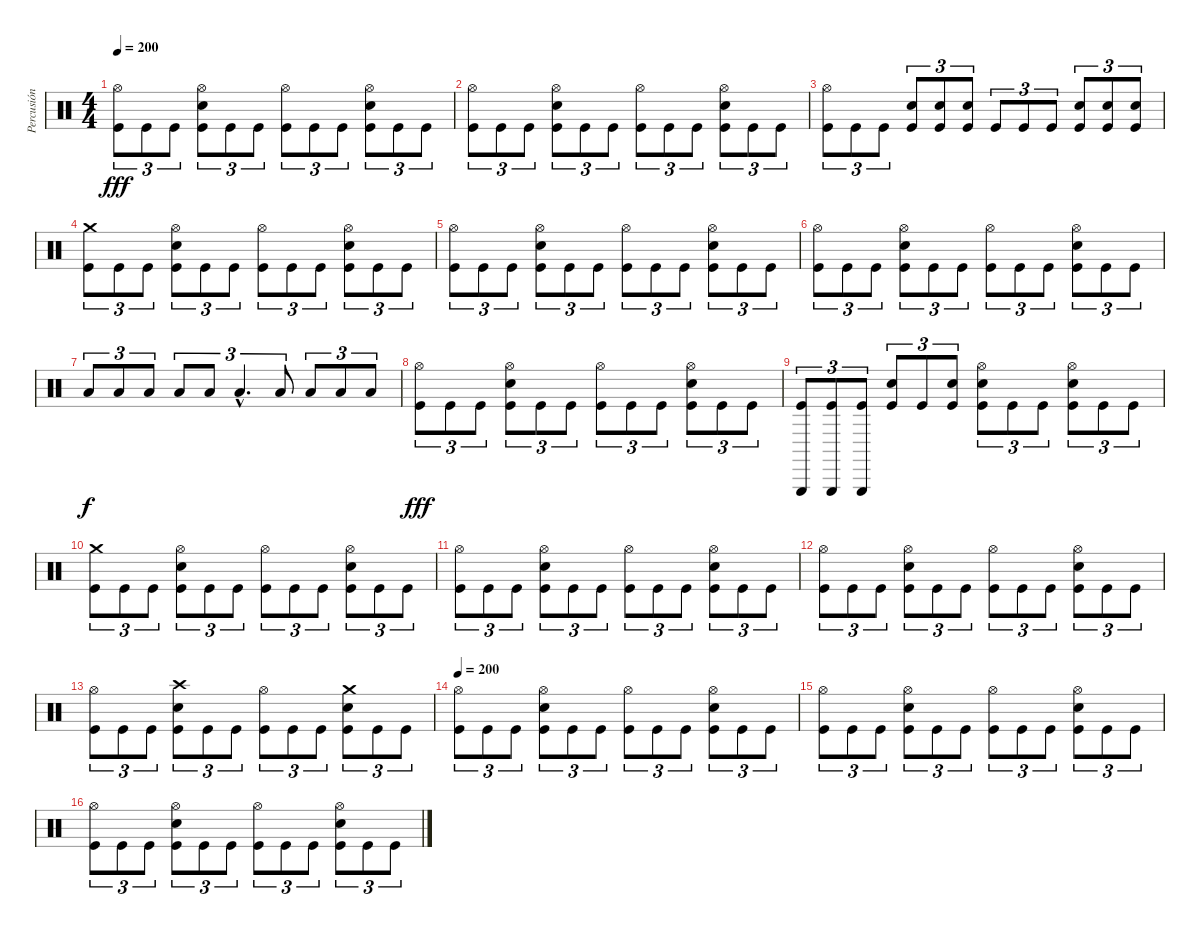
\track ("Percusión" "Percusión") {instrument percussion}
\staff {score}
\articulation defaults
\ts (4 4)
\tempo 200
\clef neutral
\ks c
("Hi-Hat (open)" "Kick (hit)").8{tu (3 2) dy fff} "Kick (hit)".8{tu (3 2)} "Kick (hit)".8{tu (3 2)} ("Hi-Hat (open)" "Electric Snare (hit)" "Kick (hit)").8{tu (3 2)} "Kick (hit)".8{tu (3 2)} "Kick (hit)".8{tu (3 2)} ("Hi-Hat (open)" "Kick (hit)").8{tu (3 2)} "Kick (hit)".8{tu (3 2)} "Kick (hit)".8{tu (3 2)} ("Hi-Hat (open)" "Electric Snare (hit)" "Kick (hit)").8{tu (3 2)} "Kick (hit)".8{tu (3 2)} "Kick (hit)".8{tu (3 2)} |
("Hi-Hat (open)" "Kick (hit)").8{tu (3 2)} "Kick (hit)".8{tu (3 2)} "Kick (hit)".8{tu (3 2)} ("Hi-Hat (open)" "Electric Snare (hit)" "Kick (hit)").8{tu (3 2)} "Kick (hit)".8{tu (3 2)} "Kick (hit)".8{tu (3 2)} ("Hi-Hat (open)" "Kick (hit)").8{tu (3 2)} "Kick (hit)".8{tu (3 2)} "Kick (hit)".8{tu (3 2)} ("Hi-Hat (open)" "Electric Snare (hit)" "Kick (hit)").8{tu (3 2)} "Kick (hit)".8{tu (3 2)} "Kick (hit)".8{tu (3 2)} |
("Hi-Hat (open)" "Kick (hit)").8{tu (3 2)} "Kick (hit)".8{tu (3 2)} "Kick (hit)".8{tu (3 2)} ("Electric Snare (hit)" "Kick (hit)").8{tu (3 2)} ("Electric Snare (hit)" "Kick (hit)").8{tu (3 2)} ("Electric Snare (hit)" "Kick (hit)").8{tu (3 2)} "Kick (hit)".8{tu (3 2)} "Kick (hit)".8{tu (3 2)} "Kick (hit)".8{tu (3 2)} ("Electric Snare (hit)" "Kick (hit)").8{tu (3 2)} ("Electric Snare (hit)" "Kick (hit)").8{tu (3 2)} ("Electric Snare (hit)" "Kick (hit)").8{tu (3 2)} |
("Crash medium (hit)" "Kick (hit)").8{tu (3 2)} "Kick (hit)".8{tu (3 2)} "Kick (hit)".8{tu (3 2)} ("Hi-Hat (open)" "Electric Snare (hit)" "Kick (hit)").8{tu (3 2)} "Kick (hit)".8{tu (3 2)} "Kick (hit)".8{tu (3 2)} ("Hi-Hat (open)" "Kick (hit)").8{tu (3 2)} "Kick (hit)".8{tu (3 2)} "Kick (hit)".8{tu (3 2)} ("Hi-Hat (open)" "Electric Snare (hit)" "Kick (hit)").8{tu (3 2)} "Kick (hit)".8{tu (3 2)} "Kick (hit)".8{tu (3 2)} |
("Hi-Hat (open)" "Kick (hit)").8{tu (3 2)} "Kick (hit)".8{tu (3 2)} "Kick (hit)".8{tu (3 2)} ("Hi-Hat (open)" "Electric Snare (hit)" "Kick (hit)").8{tu (3 2)} "Kick (hit)".8{tu (3 2)} "Kick (hit)".8{tu (3 2)} ("Hi-Hat (open)" "Kick (hit)").8{tu (3 2)} "Kick (hit)".8{tu (3 2)} "Kick (hit)".8{tu (3 2)} ("Hi-Hat (open)" "Electric Snare (hit)" "Kick (hit)").8{tu (3 2)} "Kick (hit)".8{tu (3 2)} "Kick (hit)".8{tu (3 2)} |
("Hi-Hat (open)" "Kick (hit)").8{tu (3 2)} "Kick (hit)".8{tu (3 2)} "Kick (hit)".8{tu (3 2)} ("Hi-Hat (open)" "Electric Snare (hit)" "Kick (hit)").8{tu (3 2)} "Kick (hit)".8{tu (3 2)} "Kick (hit)".8{tu (3 2)} ("Hi-Hat (open)" "Kick (hit)").8{tu (3 2)} "Kick (hit)".8{tu (3 2)} "Kick (hit)".8{tu (3 2)} ("Hi-Hat (open)" "Electric Snare (hit)" "Kick (hit)").8{tu (3 2)} "Kick (hit)".8{tu (3 2)} "Kick (hit)".8{tu (3 2)} |
"Low Tom (hit)".8{tu (3 2) dy f} "Low Tom (hit)".8{tu (3 2)} "Low Tom (hit)".8{tu (3 2)} "Low Tom (hit)".8{tu (3 2)} "Low Tom (hit)".8{tu (3 2)} "Low Tom (hit)"{hac}.4{d tu (3 2)} "Low Tom (hit)".8{tu (3 2)} "Low Tom (hit)".8{tu (3 2)} "Low Tom (hit)".8{tu (3 2)} "Low Tom (hit)".8{tu (3 2)} |
("Hi-Hat (open)" "Kick (hit)").8{tu (3 2) dy fff} "Kick (hit)".8{tu (3 2)} "Kick (hit)".8{tu (3 2)} ("Hi-Hat (open)" "Electric Snare (hit)" "Kick (hit)").8{tu (3 2)} "Kick (hit)".8{tu (3 2)} "Kick (hit)".8{tu (3 2)} ("Hi-Hat (open)" "Kick (hit)").8{tu (3 2)} "Kick (hit)".8{tu (3 2)} "Kick (hit)".8{tu (3 2)} ("Hi-Hat (open)" "Electric Snare (hit)" "Kick (hit)").8{tu (3 2)} "Kick (hit)".8{tu (3 2)} "Kick (hit)".8{tu (3 2)} |
("Triangle (hit)" "Kick (hit)").8{tu (3 2)} ("Triangle (hit)" "Kick (hit)").8{tu (3 2)} ("Triangle (hit)" "Kick (hit)").8{tu (3 2)} ("Electric Snare (hit)" "Kick (hit)").8{tu (3 2)} "Kick (hit)".8{tu (3 2)} ("Electric Snare (hit)" "Kick (hit)").8{tu (3 2)} ("Hi-Hat (open)" "Electric Snare (hit)" "Kick (hit)").8{tu (3 2)} "Kick (hit)".8{tu (3 2)} "Kick (hit)".8{tu (3 2)} ("Hi-Hat (open)" "Electric Snare (hit)" "Kick (hit)").8{tu (3 2)} "Kick (hit)".8{tu (3 2)} "Kick (hit)".8{tu (3 2)} |
("Crash medium (hit)" "Kick (hit)").8{tu (3 2)} "Kick (hit)".8{tu (3 2)} "Kick (hit)".8{tu (3 2)} ("Hi-Hat (open)" "Electric Snare (hit)" "Kick (hit)").8{tu (3 2)} "Kick (hit)".8{tu (3 2)} "Kick (hit)".8{tu (3 2)} ("Hi-Hat (open)" "Kick (hit)").8{tu (3 2)} "Kick (hit)".8{tu (3 2)} "Kick (hit)".8{tu (3 2)} ("Hi-Hat (open)" "Electric Snare (hit)" "Kick (hit)").8{tu (3 2)} "Kick (hit)".8{tu (3 2)} "Kick (hit)".8{tu (3 2)} |
("Hi-Hat (open)" "Kick (hit)").8{tu (3 2)} "Kick (hit)".8{tu (3 2)} "Kick (hit)".8{tu (3 2)} ("Hi-Hat (open)" "Electric Snare (hit)" "Kick (hit)").8{tu (3 2)} "Kick (hit)".8{tu (3 2)} "Kick (hit)".8{tu (3 2)} ("Hi-Hat (open)" "Kick (hit)").8{tu (3 2)} "Kick (hit)".8{tu (3 2)} "Kick (hit)".8{tu (3 2)} ("Hi-Hat (open)" "Electric Snare (hit)" "Kick (hit)").8{tu (3 2)} "Kick (hit)".8{tu (3 2)} "Kick (hit)".8{tu (3 2)} |
("Hi-Hat (open)" "Kick (hit)").8{tu (3 2)} "Kick (hit)".8{tu (3 2)} "Kick (hit)".8{tu (3 2)} ("Hi-Hat (open)" "Electric Snare (hit)" "Kick (hit)").8{tu (3 2)} "Kick (hit)".8{tu (3 2)} "Kick (hit)".8{tu (3 2)} ("Hi-Hat (open)" "Kick (hit)").8{tu (3 2)} "Kick (hit)".8{tu (3 2)} "Kick (hit)".8{tu (3 2)} ("Hi-Hat (open)" "Electric Snare (hit)" "Kick (hit)").8{tu (3 2)} "Kick (hit)".8{tu (3 2)} "Kick (hit)".8{tu (3 2)} |
("Hi-Hat (open)" "Kick (hit)").8{tu (3 2)} "Kick (hit)".8{tu (3 2)} "Kick (hit)".8{tu (3 2)} ("Crash high (hit)" "Electric Snare (hit)" "Kick (hit)").8{tu (3 2)} "Kick (hit)".8{tu (3 2)} "Kick (hit)".8{tu (3 2)} ("Hi-Hat (open)" "Kick (hit)").8{tu (3 2)} "Kick (hit)".8{tu (3 2)} "Kick (hit)".8{tu (3 2)} ("Crash medium (hit)" "Electric Snare (hit)" "Kick (hit)").8{tu (3 2)} "Kick (hit)".8{tu (3 2)} "Kick (hit)".8{tu (3 2)} |
\tempo 200
("Hi-Hat (open)" "Kick (hit)").8{tu (3 2)} "Kick (hit)".8{tu (3 2)} "Kick (hit)".8{tu (3 2)} ("Hi-Hat (open)" "Electric Snare (hit)" "Kick (hit)").8{tu (3 2)} "Kick (hit)".8{tu (3 2)} "Kick (hit)".8{tu (3 2)} ("Hi-Hat (open)" "Kick (hit)").8{tu (3 2)} "Kick (hit)".8{tu (3 2)} "Kick (hit)".8{tu (3 2)} ("Hi-Hat (open)" "Electric Snare (hit)" "Kick (hit)").8{tu (3 2)} "Kick (hit)".8{tu (3 2)} "Kick (hit)".8{tu (3 2)} |
("Hi-Hat (open)" "Kick (hit)").8{tu (3 2)} "Kick (hit)".8{tu (3 2)} "Kick (hit)".8{tu (3 2)} ("Hi-Hat (open)" "Electric Snare (hit)" "Kick (hit)").8{tu (3 2)} "Kick (hit)".8{tu (3 2)} "Kick (hit)".8{tu (3 2)} ("Hi-Hat (open)" "Kick (hit)").8{tu (3 2)} "Kick (hit)".8{tu (3 2)} "Kick (hit)".8{tu (3 2)} ("Hi-Hat (open)" "Electric Snare (hit)" "Kick (hit)").8{tu (3 2)} "Kick (hit)".8{tu (3 2)} "Kick (hit)".8{tu (3 2)} |
("Hi-Hat (open)" "Kick (hit)").8{tu (3 2)} "Kick (hit)".8{tu (3 2)} "Kick (hit)".8{tu (3 2)} ("Hi-Hat (open)" "Electric Snare (hit)" "Kick (hit)").8{tu (3 2)} "Kick (hit)".8{tu (3 2)} "Kick (hit)".8{tu (3 2)} ("Hi-Hat (open)" "Kick (hit)").8{tu (3 2)} "Kick (hit)".8{tu (3 2)} "Kick (hit)".8{tu (3 2)} ("Hi-Hat (open)" "Electric Snare (hit)" "Kick (hit)").8{tu (3 2)} "Kick (hit)".8{tu (3 2)} "Kick (hit)".8{tu (3 2)}
